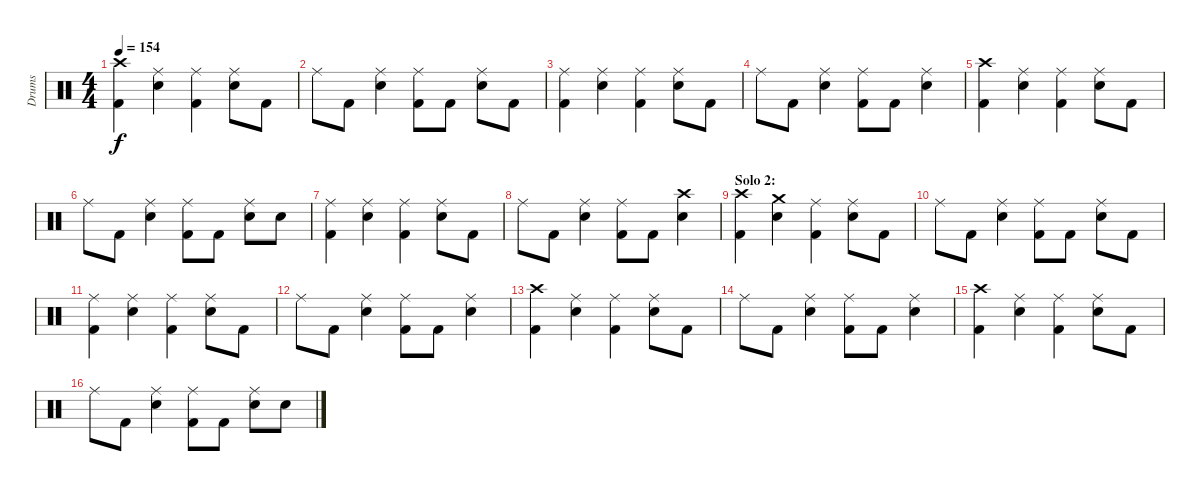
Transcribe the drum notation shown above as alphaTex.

\track ("Drums" "Drums") {instrument percussion}
\staff {score}
\articulation defaults
\ts (4 4)
\tempo 154
\clef neutral
\ks c
("Crash high (hit)" "Kick (hit) 2").4{dy f} ("Ride (middle)" "Snare (hit) 2").4 ("Ride (middle)" "Kick (hit) 2").4 ("Ride (middle)" "Snare (hit) 2").8 "Kick (hit) 2".8 |
"Ride (middle)".8 "Kick (hit) 2".8 ("Ride (middle)" "Snare (hit) 2").4 ("Ride (middle)" "Kick (hit) 2").8 "Kick (hit) 2".8 ("Ride (middle)" "Snare (hit) 2").8 "Kick (hit) 2".8 |
("Ride (middle)" "Kick (hit) 2").4 ("Ride (middle)" "Snare (hit) 2").4 ("Ride (middle)" "Kick (hit) 2").4 ("Ride (middle)" "Snare (hit) 2").8 "Kick (hit) 2".8 |
"Ride (middle)".8 "Kick (hit) 2".8 ("Ride (middle)" "Snare (hit) 2").4 ("Ride (middle)" "Kick (hit) 2").8 "Kick (hit) 2".8 ("Ride (middle)" "Snare (hit) 2").4 |
("Crash high (hit)" "Kick (hit) 2").4 ("Ride (middle)" "Snare (hit) 2").4 ("Ride (middle)" "Kick (hit) 2").4 ("Ride (middle)" "Snare (hit) 2").8 "Kick (hit) 2".8 |
"Ride (middle)".8 "Kick (hit) 2".8 ("Ride (middle)" "Snare (hit) 2").4 ("Ride (middle)" "Kick (hit) 2").8 "Kick (hit) 2".8 ("Ride (middle)" "Snare (hit) 2").8 "Snare (hit) 2".8 |
("Ride (middle)" "Kick (hit) 2").4 ("Ride (middle)" "Snare (hit) 2").4 ("Ride (middle)" "Kick (hit) 2").4 ("Ride (middle)" "Snare (hit) 2").8 "Kick (hit) 2".8 |
"Ride (middle)".8 "Kick (hit) 2".8 ("Ride (middle)" "Snare (hit) 2").4 ("Ride (middle)" "Kick (hit) 2").8 "Kick (hit) 2".8 ("Crash high (hit)" "Snare (hit) 2").4 |
\section ("" "Solo 2:")
("Crash high (hit)" "Kick (hit) 2").4 ("Crash medium (hit)" "Snare (hit) 2").4 ("Ride (middle)" "Kick (hit) 2").4 ("Ride (middle)" "Snare (hit) 2").8 "Kick (hit) 2".8 |
"Ride (middle)".8 "Kick (hit) 2".8 ("Ride (middle)" "Snare (hit) 2").4 ("Ride (middle)" "Kick (hit) 2").8 "Kick (hit) 2".8 ("Ride (middle)" "Snare (hit) 2").8 "Kick (hit) 2".8 |
("Ride (middle)" "Kick (hit) 2").4 ("Ride (middle)" "Snare (hit) 2").4 ("Ride (middle)" "Kick (hit) 2").4 ("Ride (middle)" "Snare (hit) 2").8 "Kick (hit) 2".8 |
"Ride (middle)".8 "Kick (hit) 2".8 ("Ride (middle)" "Snare (hit) 2").4 ("Ride (middle)" "Kick (hit) 2").8 "Kick (hit) 2".8 ("Ride (middle)" "Snare (hit) 2").4 |
("Crash high (hit)" "Kick (hit) 2").4 ("Ride (middle)" "Snare (hit) 2").4 ("Ride (middle)" "Kick (hit) 2").4 ("Ride (middle)" "Snare (hit) 2").8 "Kick (hit) 2".8 |
"Ride (middle)".8 "Kick (hit) 2".8 ("Ride (middle)" "Snare (hit) 2").4 ("Ride (middle)" "Kick (hit) 2").8 "Kick (hit) 2".8 ("Ride (middle)" "Snare (hit) 2").4 |
("Crash high (hit)" "Kick (hit) 2").4 ("Ride (middle)" "Snare (hit) 2").4 ("Ride (middle)" "Kick (hit) 2").4 ("Ride (middle)" "Snare (hit) 2").8 "Kick (hit) 2".8 |
"Ride (middle)".8 "Kick (hit) 2".8 ("Ride (middle)" "Snare (hit) 2").4 ("Ride (middle)" "Kick (hit) 2").8 "Kick (hit) 2".8 ("Ride (middle)" "Snare (hit) 2").8 "Snare (hit) 2".8
